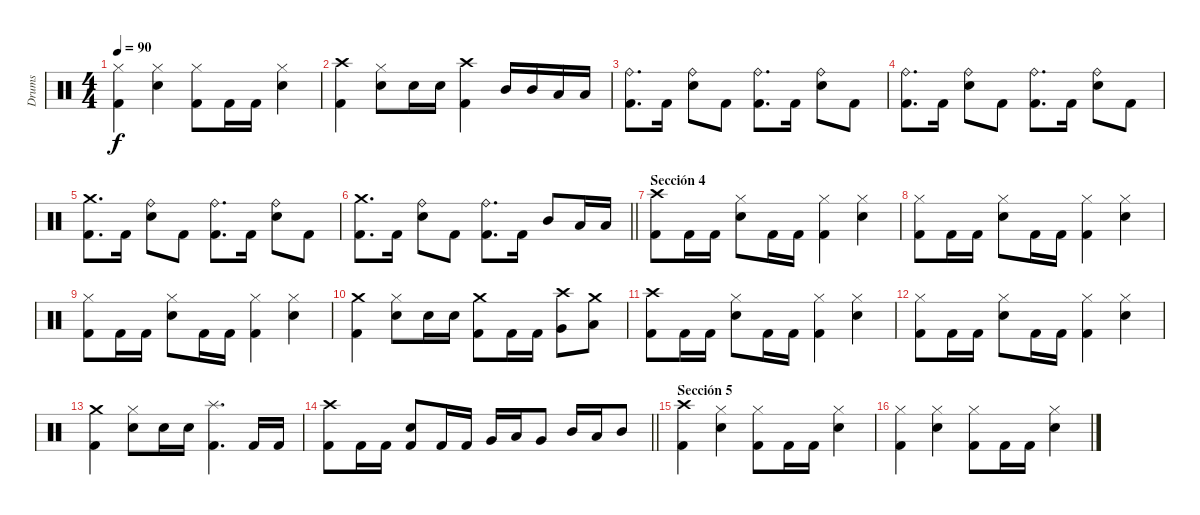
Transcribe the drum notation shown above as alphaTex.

\track ("Drums" "Drums") {instrument percussion}
\staff {score}
\articulation defaults
\ts (4 4)
\tempo 90
\clef neutral
\ks c
("Hi-Hat (closed)" "Kick (hit) 2").4{dy f} ("Hi-Hat (closed)" "Snare (hit) 2").4 ("Hi-Hat (closed)" "Kick (hit) 2").8 "Kick (hit) 2".16 "Kick (hit) 2".16 ("Hi-Hat (closed)" "Snare (hit) 2").4 |
("Crash high (hit)" "Kick (hit) 2").4 ("Hi-Hat (closed)" "Snare (hit) 2").8 "Snare (hit) 2".16 "Snare (hit) 2".16 ("Crash high (hit)" "Kick (hit) 2").4 "Mid Tom (hit)".16 "Mid Tom (hit)".16 "Low Tom (hit)".16 "Low Tom (hit)".16 |
("Ride (bell)" "Kick (hit) 2").8{d} "Kick (hit) 2".16 ("Ride (bell)" "Snare (hit) 2").8 "Kick (hit) 2".8 ("Ride (bell)" "Kick (hit) 2").8{d} "Kick (hit) 2".16 ("Ride (bell)" "Snare (hit) 2").8 "Kick (hit) 2".8 |
("Ride (bell)" "Kick (hit) 2").8{d} "Kick (hit) 2".16 ("Ride (bell)" "Snare (hit) 2").8 "Kick (hit) 2".8 ("Ride (bell)" "Kick (hit) 2").8{d} "Kick (hit) 2".16 ("Ride (bell)" "Snare (hit) 2").8 "Kick (hit) 2".8 |
("Crash medium (hit)" "Kick (hit) 2").8{d} "Kick (hit) 2".16 ("Ride (bell)" "Snare (hit) 2").8 "Kick (hit) 2".8 ("Ride (bell)" "Kick (hit) 2").8{d} "Kick (hit) 2".16 ("Ride (bell)" "Snare (hit) 2").8 "Kick (hit) 2".8 |
\barLineRight lightlight
("Crash medium (hit)" "Kick (hit) 2").8{d} "Kick (hit) 2".16 ("Ride (bell)" "Snare (hit) 2").8 "Kick (hit) 2".8 ("Ride (bell)" "Kick (hit) 2").8{d} "Kick (hit) 2".16 "Mid Tom (hit)".8 "Low Tom (hit)".16 "Low Tom (hit)".16 |
\section ("" "Sección 4")
("Crash high (hit)" "Kick (hit) 2").8 "Kick (hit) 2".16 "Kick (hit) 2".16 ("Hi-Hat (closed)" "Snare (hit) 2").8 "Kick (hit) 2".16 "Kick (hit) 2".16 ("Hi-Hat (closed)" "Kick (hit) 2").4 ("Hi-Hat (closed)" "Snare (hit) 2").4 |
("Hi-Hat (closed)" "Kick (hit) 2").8 "Kick (hit) 2".16 "Kick (hit) 2".16 ("Hi-Hat (closed)" "Snare (hit) 2").8 "Kick (hit) 2".16 "Kick (hit) 2".16 ("Hi-Hat (closed)" "Kick (hit) 2").4 ("Hi-Hat (closed)" "Snare (hit) 2").4 |
("Hi-Hat (closed)" "Kick (hit) 2").8 "Kick (hit) 2".16 "Kick (hit) 2".16 ("Hi-Hat (closed)" "Snare (hit) 2").8 "Kick (hit) 2".16 "Kick (hit) 2".16 ("Hi-Hat (closed)" "Kick (hit) 2").4 ("Hi-Hat (closed)" "Snare (hit) 2").4 |
("Crash medium (hit)" "Kick (hit) 2").4 ("Hi-Hat (closed)" "Snare (hit) 2").8 "Snare (hit) 2".16 "Snare (hit) 2".16 ("Crash medium (hit)" "Kick (hit) 2").8 "Kick (hit) 2".16 "Kick (hit) 2".16 ("Crash high (hit)" "Very Low Tom (hit)").8 ("Crash medium (hit)" "Low Floor Tom (hit)").8 |
("Crash high (hit)" "Kick (hit) 2").8 "Kick (hit) 2".16 "Kick (hit) 2".16 ("Hi-Hat (closed)" "Snare (hit) 2").8 "Kick (hit) 2".16 "Kick (hit) 2".16 ("Hi-Hat (closed)" "Kick (hit) 2").4 ("Hi-Hat (closed)" "Snare (hit) 2").4 |
("Hi-Hat (closed)" "Kick (hit) 2").8 "Kick (hit) 2".16 "Kick (hit) 2".16 ("Hi-Hat (closed)" "Snare (hit) 2").8 "Kick (hit) 2".16 "Kick (hit) 2".16 ("Hi-Hat (closed)" "Kick (hit) 2").4 ("Hi-Hat (closed)" "Snare (hit) 2").4 |
("Crash medium (hit)" "Kick (hit) 2").4 ("Hi-Hat (closed)" "Snare (hit) 2").8 "Snare (hit) 2".16 "Snare (hit) 2".16 ("Splash (hit)" "Kick (hit) 2").4{d} "Kick (hit) 2".16 "Kick (hit) 2".16 |
\barLineRight lightlight
("Crash high (hit)" "Kick (hit) 2").8 "Kick (hit) 2".16 "Kick (hit) 2".16 ("Snare (hit) 2" "Kick (hit) 2").8 "Kick (hit) 2".16 "Kick (hit) 2".16 "Very Low Tom (hit)".16 "Low Floor Tom (hit)".16 "Very Low Tom (hit)".8 "Mid Tom (hit)".16 "Low Tom (hit)".16 "Mid Tom (hit)".8 |
\section ("" "Sección 5")
("Crash high (hit)" "Kick (hit) 2").4 ("Hi-Hat (closed)" "Snare (hit) 2").4 ("Hi-Hat (closed)" "Kick (hit) 2").8 "Kick (hit) 2".16 "Kick (hit) 2".16 ("Hi-Hat (closed)" "Snare (hit) 2").4 |
("Hi-Hat (closed)" "Kick (hit) 2").4 ("Hi-Hat (closed)" "Snare (hit) 2").4 ("Hi-Hat (closed)" "Kick (hit) 2").8 "Kick (hit) 2".16 "Kick (hit) 2".16 ("Hi-Hat (closed)" "Snare (hit) 2").4
